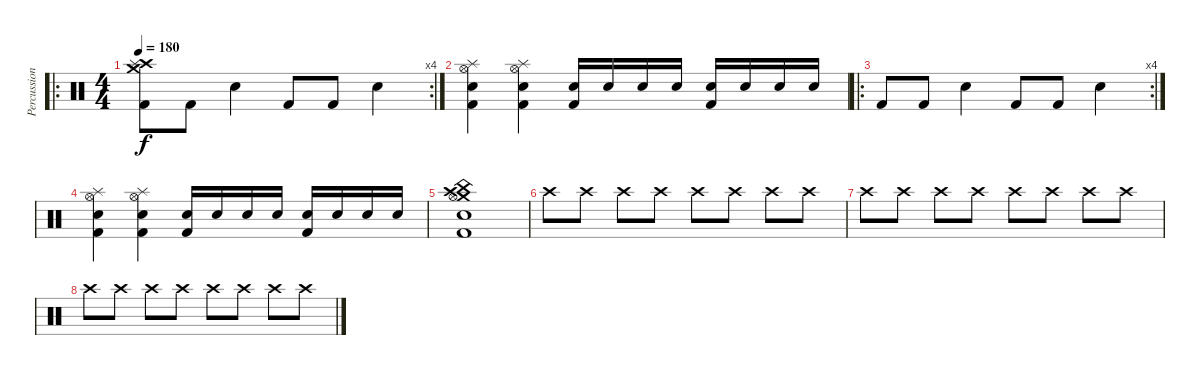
\track ("Percussion" "Percussion") {instrument percussion}
\staff {score}
\articulation defaults
\ro
\rc 4
\ts (4 4)
\tempo 180
\clef neutral
\ks c
("Crash high (hit)" "Crash medium (hit)" "Splash (hit)" "Kick (hit) 2").8{dy f} "Kick (hit) 2".8 "Electric Snare (hit)".4 "Kick (hit) 2".8 "Kick (hit) 2".8 "Electric Snare (hit)".4 |
("Hi-Hat (open)" "Splash (hit)" "Electric Snare (hit)" "Kick (hit) 2").4 ("Hi-Hat (open)" "Splash (hit)" "Electric Snare (hit)" "Kick (hit) 2").4 ("Kick (hit) 2" "Electric Snare (hit)").16 "Electric Snare (hit)".16 "Electric Snare (hit)".16 "Electric Snare (hit)".16 ("Kick (hit) 2" "Electric Snare (hit)").16 "Electric Snare (hit)".16 "Electric Snare (hit)".16 "Electric Snare (hit)".16 |
\ro
\rc 4 "Kick (hit) 2".8 "Kick (hit) 2".8 "Electric Snare (hit)".4 "Kick (hit) 2".8 "Kick (hit) 2".8 "Electric Snare (hit)".4
|
("Hi-Hat (open)" "Splash (hit)" "Electric Snare (hit)" "Kick (hit) 2").4 ("Hi-Hat (open)" "Splash (hit)" "Electric Snare (hit)" "Kick (hit) 2").4 ("Kick (hit) 2" "Electric Snare (hit)").16 "Electric Snare (hit)".16 "Electric Snare (hit)".16 "Electric Snare (hit)".16 ("Kick (hit) 2" "Electric Snare (hit)").16 "Electric Snare (hit)".16 "Electric Snare (hit)".16 "Electric Snare (hit)".16 |
("Kick (hit) 2" "Electric Snare (hit)" "Crash high (hit)" "China (hit)" "Crash medium (hit)" "Hi-Hat (open)").1 |
"Crash high (hit)".8 "Crash high (hit)".8 "Crash high (hit)".8 "Crash high (hit)".8 "Crash high (hit)".8 "Crash high (hit)".8 "Crash high (hit)".8 "Crash high (hit)".8 |
"Crash high (hit)".8 "Crash high (hit)".8 "Crash high (hit)".8 "Crash high (hit)".8 "Crash high (hit)".8 "Crash high (hit)".8 "Crash high (hit)".8 "Crash high (hit)".8 |
"Crash high (hit)".8 "Crash high (hit)".8 "Crash high (hit)".8 "Crash high (hit)".8 "Crash high (hit)".8 "Crash high (hit)".8 "Crash high (hit)".8 "Crash high (hit)".8
